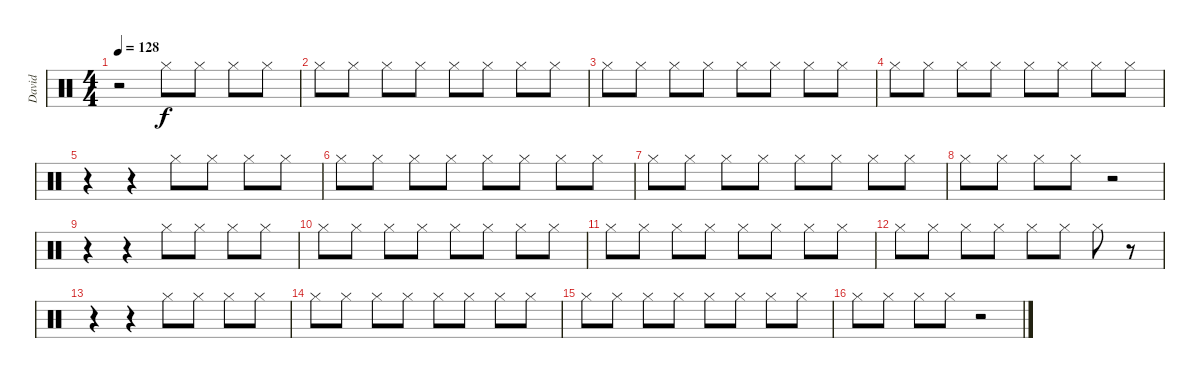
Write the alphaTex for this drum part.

\track ("David" "David") {instrument percussion}
\staff {score}
\articulation defaults
\ts (4 4)
\tempo 128
\clef neutral
\ks c
r.2{dy f} "Hi-Hat (closed)".8 "Hi-Hat (closed)".8 "Hi-Hat (closed)".8 "Hi-Hat (closed)".8 |
"Hi-Hat (closed)".8 "Hi-Hat (closed)".8 "Hi-Hat (closed)".8 "Hi-Hat (closed)".8 "Hi-Hat (closed)".8 "Hi-Hat (closed)".8 "Hi-Hat (closed)".8 "Hi-Hat (closed)".8 |
"Hi-Hat (closed)".8 "Hi-Hat (closed)".8 "Hi-Hat (closed)".8 "Hi-Hat (closed)".8 "Hi-Hat (closed)".8 "Hi-Hat (closed)".8 "Hi-Hat (closed)".8 "Hi-Hat (closed)".8 |
"Hi-Hat (closed)".8 "Hi-Hat (closed)".8 "Hi-Hat (closed)".8 "Hi-Hat (closed)".8 "Hi-Hat (closed)".8 "Hi-Hat (closed)".8 "Hi-Hat (closed)".8 "Hi-Hat (closed)".8 |
r.4 r.4 "Hi-Hat (closed)".8 "Hi-Hat (closed)".8 "Hi-Hat (closed)".8 "Hi-Hat (closed)".8 |
"Hi-Hat (closed)".8 "Hi-Hat (closed)".8 "Hi-Hat (closed)".8 "Hi-Hat (closed)".8 "Hi-Hat (closed)".8 "Hi-Hat (closed)".8 "Hi-Hat (closed)".8 "Hi-Hat (closed)".8 |
"Hi-Hat (closed)".8 "Hi-Hat (closed)".8 "Hi-Hat (closed)".8 "Hi-Hat (closed)".8 "Hi-Hat (closed)".8 "Hi-Hat (closed)".8 "Hi-Hat (closed)".8 "Hi-Hat (closed)".8 |
"Hi-Hat (closed)".8 "Hi-Hat (closed)".8 "Hi-Hat (closed)".8 "Hi-Hat (closed)".8 r.2 |
r.4 r.4 "Hi-Hat (closed)".8 "Hi-Hat (closed)".8 "Hi-Hat (closed)".8 "Hi-Hat (closed)".8 |
"Hi-Hat (closed)".8 "Hi-Hat (closed)".8 "Hi-Hat (closed)".8 "Hi-Hat (closed)".8 "Hi-Hat (closed)".8 "Hi-Hat (closed)".8 "Hi-Hat (closed)".8 "Hi-Hat (closed)".8 |
"Hi-Hat (closed)".8 "Hi-Hat (closed)".8 "Hi-Hat (closed)".8 "Hi-Hat (closed)".8 "Hi-Hat (closed)".8 "Hi-Hat (closed)".8 "Hi-Hat (closed)".8 "Hi-Hat (closed)".8 |
"Hi-Hat (closed)".8 "Hi-Hat (closed)".8 "Hi-Hat (closed)".8 "Hi-Hat (closed)".8 "Hi-Hat (closed)".8 "Hi-Hat (closed)".8 "Hi-Hat (closed)".8 r.8 |
r.4 r.4 "Hi-Hat (closed)".8 "Hi-Hat (closed)".8 "Hi-Hat (closed)".8 "Hi-Hat (closed)".8 |
"Hi-Hat (closed)".8 "Hi-Hat (closed)".8 "Hi-Hat (closed)".8 "Hi-Hat (closed)".8 "Hi-Hat (closed)".8 "Hi-Hat (closed)".8 "Hi-Hat (closed)".8 "Hi-Hat (closed)".8 |
"Hi-Hat (closed)".8 "Hi-Hat (closed)".8 "Hi-Hat (closed)".8 "Hi-Hat (closed)".8 "Hi-Hat (closed)".8 "Hi-Hat (closed)".8 "Hi-Hat (closed)".8 "Hi-Hat (closed)".8 |
"Hi-Hat (closed)".8 "Hi-Hat (closed)".8 "Hi-Hat (closed)".8 "Hi-Hat (closed)".8 r.2
